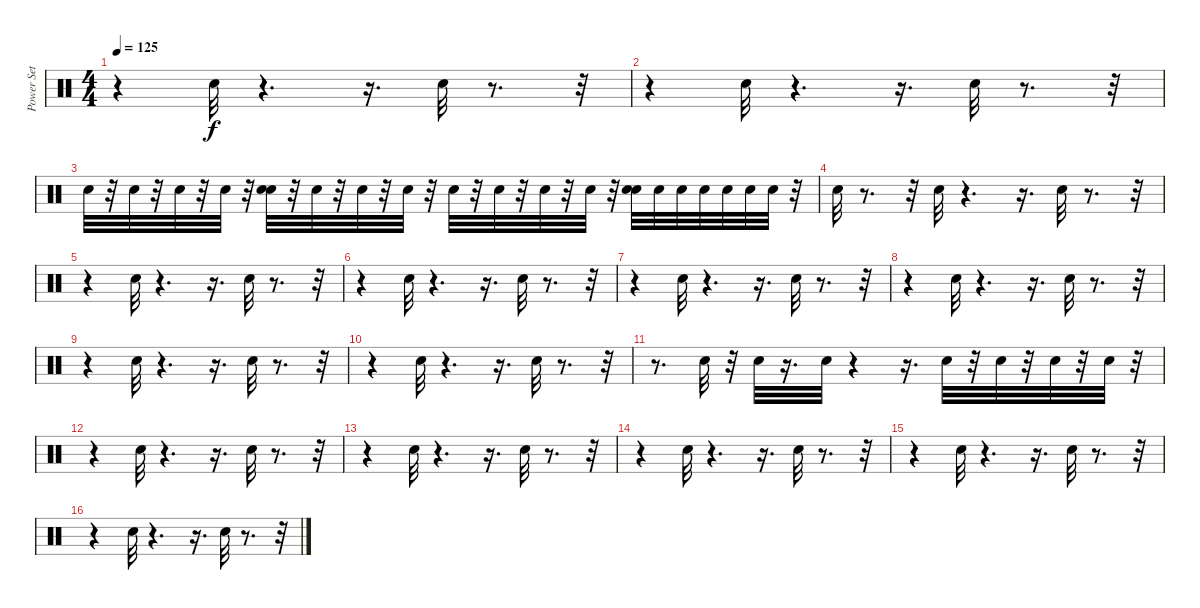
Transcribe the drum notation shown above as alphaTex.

\track ("Power Set" "Power Set") {instrument percussion}
\staff {score}
\articulation defaults
\ts (4 4)
\tempo 125
\clef neutral
\ks c
r.4{dy f} "Snare (hit) 2".32 r.4{d} r.16{d} "Snare (hit) 2".32 r.8{d} r.32 |
r.4 "Snare (hit) 2".32 r.4{d} r.16{d} "Snare (hit) 2".32 r.8{d} r.32 |
"Electric Snare (hit)".32 r.32 "Electric Snare (hit)".32 r.32 "Electric Snare (hit)".32 r.32 "Electric Snare (hit)".32 r.32 ("Electric Snare (hit)" "Snare (hit) 2").32 r.32 "Electric Snare (hit)".32 r.32 "Electric Snare (hit)".32 r.32 "Electric Snare (hit)".32 r.32 "Electric Snare (hit)".32 r.32 "Electric Snare (hit)".32 r.32 "Electric Snare (hit)".32 r.32 "Electric Snare (hit)".32 r.32 ("Electric Snare (hit)" "Snare (hit) 2").32 "Electric Snare (hit)".32 "Electric Snare (hit)".32 "Electric Snare (hit)".32 "Electric Snare (hit)".32 "Electric Snare (hit)".32 "Electric Snare (hit)".32 r.32 |
"Electric Snare (hit)".32 r.8{d} r.32 "Snare (hit) 2".32 r.4{d} r.16{d} "Snare (hit) 2".32 r.8{d} r.32 |
r.4 "Snare (hit) 2".32 r.4{d} r.16{d} "Snare (hit) 2".32 r.8{d} r.32 |
r.4 "Snare (hit) 2".32 r.4{d} r.16{d} "Snare (hit) 2".32 r.8{d} r.32 |
r.4 "Snare (hit) 2".32 r.4{d} r.16{d} "Snare (hit) 2".32 r.8{d} r.32 |
r.4 "Snare (hit) 2".32 r.4{d} r.16{d} "Snare (hit) 2".32 r.8{d} r.32 |
r.4 "Snare (hit) 2".32 r.4{d} r.16{d} "Snare (hit) 2".32 r.8{d} r.32 |
r.4 "Snare (hit) 2".32 r.4{d} r.16{d} "Snare (hit) 2".32 r.8{d} r.32 |
r.8{d} "Electric Snare (hit)".32 r.32 "Electric Snare (hit)".32 r.16{d} "Electric Snare (hit)".32 r.4 r.16{d} "Electric Snare (hit)".32 r.32 "Electric Snare (hit)".32 r.32 "Electric Snare (hit)".32 r.32 "Electric Snare (hit)".32 r.32 |
r.4 "Snare (hit) 2".32 r.4{d} r.16{d} "Snare (hit) 2".32 r.8{d} r.32 |
r.4 "Snare (hit) 2".32 r.4{d} r.16{d} "Snare (hit) 2".32 r.8{d} r.32 |
r.4 "Snare (hit) 2".32 r.4{d} r.16{d} "Snare (hit) 2".32 r.8{d} r.32 |
r.4 "Snare (hit) 2".32 r.4{d} r.16{d} "Snare (hit) 2".32 r.8{d} r.32 |
r.4 "Snare (hit) 2".32 r.4{d} r.16{d} "Snare (hit) 2".32 r.8{d} r.32
